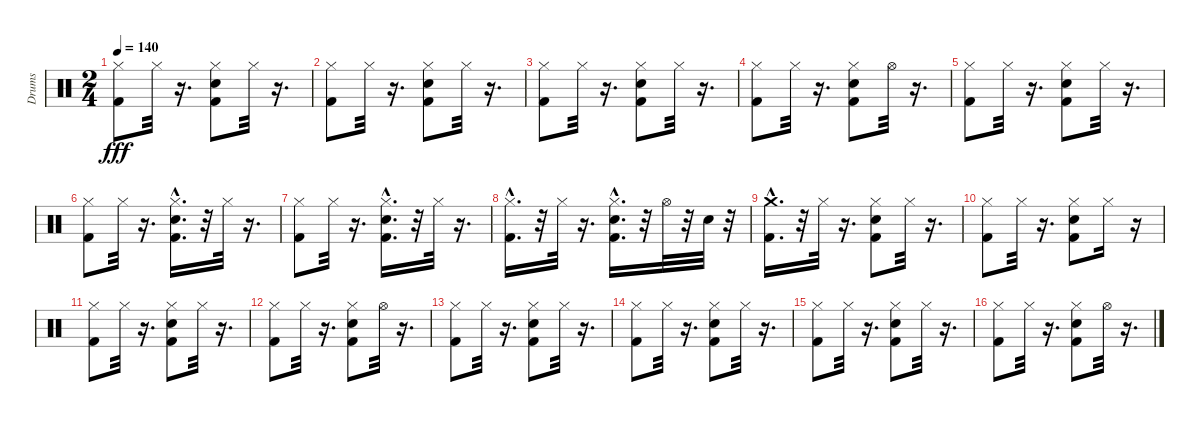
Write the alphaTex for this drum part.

\track ("Drums" "Drums") {instrument percussion}
\staff {score}
\articulation defaults
\ts (2 4)
\tempo 140
\clef neutral
\ks c
("Kick (hit) 2" "Hi-Hat (closed)").8{dy fff} "Hi-Hat (closed)".32 r.16{d} ("Snare (hit) 2" "Kick (hit) 2" "Hi-Hat (closed)").8 "Hi-Hat (closed)".32 r.16{d} |
("Kick (hit) 2" "Hi-Hat (closed)").8 "Hi-Hat (closed)".32 r.16{d} ("Snare (hit) 2" "Kick (hit) 2" "Hi-Hat (closed)").8 "Hi-Hat (closed)".32 r.16{d} |
("Kick (hit) 2" "Hi-Hat (closed)").8 "Hi-Hat (closed)".32 r.16{d} ("Kick (hit) 2" "Hi-Hat (closed)" "Snare (hit) 2").8 "Hi-Hat (closed)".32 r.16{d} |
("Kick (hit) 2" "Hi-Hat (closed)").8 "Hi-Hat (closed)".32 r.16{d} ("Kick (hit) 2" "Hi-Hat (closed)" "Snare (hit) 2").8 "Hi-Hat (open)".32 r.16{d} |
("Kick (hit) 2" "Hi-Hat (closed)").8 "Hi-Hat (closed)".32 r.16{d} ("Snare (hit) 2" "Kick (hit) 2" "Hi-Hat (closed)").8 "Hi-Hat (closed)".32 r.16{d} |
("Kick (hit) 2" "Hi-Hat (closed)").8 "Hi-Hat (closed)".32 r.16{d} ("Snare (hit) 2"{hac} "Kick (hit) 2"{hac} "Hi-Hat (closed)").16{d} r.32 "Hi-Hat (closed)".32 r.16{d} |
("Kick (hit) 2" "Hi-Hat (closed)").8 "Hi-Hat (closed)".32 r.16{d} ("Snare (hit) 2"{hac} "Kick (hit) 2"{hac} "Hi-Hat (closed)").16{d} r.32 "Hi-Hat (closed)".32 r.16{d} |
("Kick (hit) 2"{hac} "Hi-Hat (closed)").16{d} r.32 "Hi-Hat (closed)".32 r.16{d} ("Snare (hit) 2"{hac} "Kick (hit) 2"{hac} "Hi-Hat (closed)").16{d} r.32 "Hi-Hat (open)".32 r.32 "Snare (hit) 2".32 r.32 |
("Crash medium (hit)" "Kick (hit) 2"{hac}).16{d} r.32 "Hi-Hat (closed)".32 r.16{d} ("Snare (hit) 2" "Hi-Hat (closed)" "Kick (hit) 2").8 "Hi-Hat (closed)".32 r.16{d} |
("Kick (hit) 2" "Hi-Hat (closed)").8 "Hi-Hat (closed)".32 r.16{d} ("Snare (hit) 2" "Kick (hit) 2" "Hi-Hat (closed)").8 "Hi-Hat (closed)".16 r.16 |
("Kick (hit) 2" "Hi-Hat (closed)").8 "Hi-Hat (closed)".32 r.16{d} ("Snare (hit) 2" "Kick (hit) 2" "Hi-Hat (closed)").8 "Hi-Hat (closed)".32 r.16{d} |
("Kick (hit) 2" "Hi-Hat (closed)").8 "Hi-Hat (closed)".32 r.16{d} ("Snare (hit) 2" "Hi-Hat (closed)" "Kick (hit) 2").8 "Hi-Hat (open)".32 r.16{d} |
("Kick (hit) 2" "Hi-Hat (closed)").8 "Hi-Hat (closed)".32 r.16{d} ("Hi-Hat (closed)" "Snare (hit) 2" "Kick (hit) 2").8 "Hi-Hat (closed)".32 r.16{d} |
("Kick (hit) 2" "Hi-Hat (closed)").8 "Hi-Hat (closed)".32 r.16{d} ("Snare (hit) 2" "Kick (hit) 2" "Hi-Hat (closed)").8 "Hi-Hat (closed)".32 r.16{d} |
("Kick (hit) 2" "Hi-Hat (closed)").8 "Hi-Hat (closed)".32 r.16{d} ("Snare (hit) 2" "Kick (hit) 2" "Hi-Hat (closed)").8 "Hi-Hat (closed)".32 r.16{d} |
("Kick (hit) 2" "Hi-Hat (closed)").8 "Hi-Hat (closed)".32 r.16{d} ("Hi-Hat (closed)" "Snare (hit) 2" "Kick (hit) 2").8 "Hi-Hat (open)".32 r.16{d}
